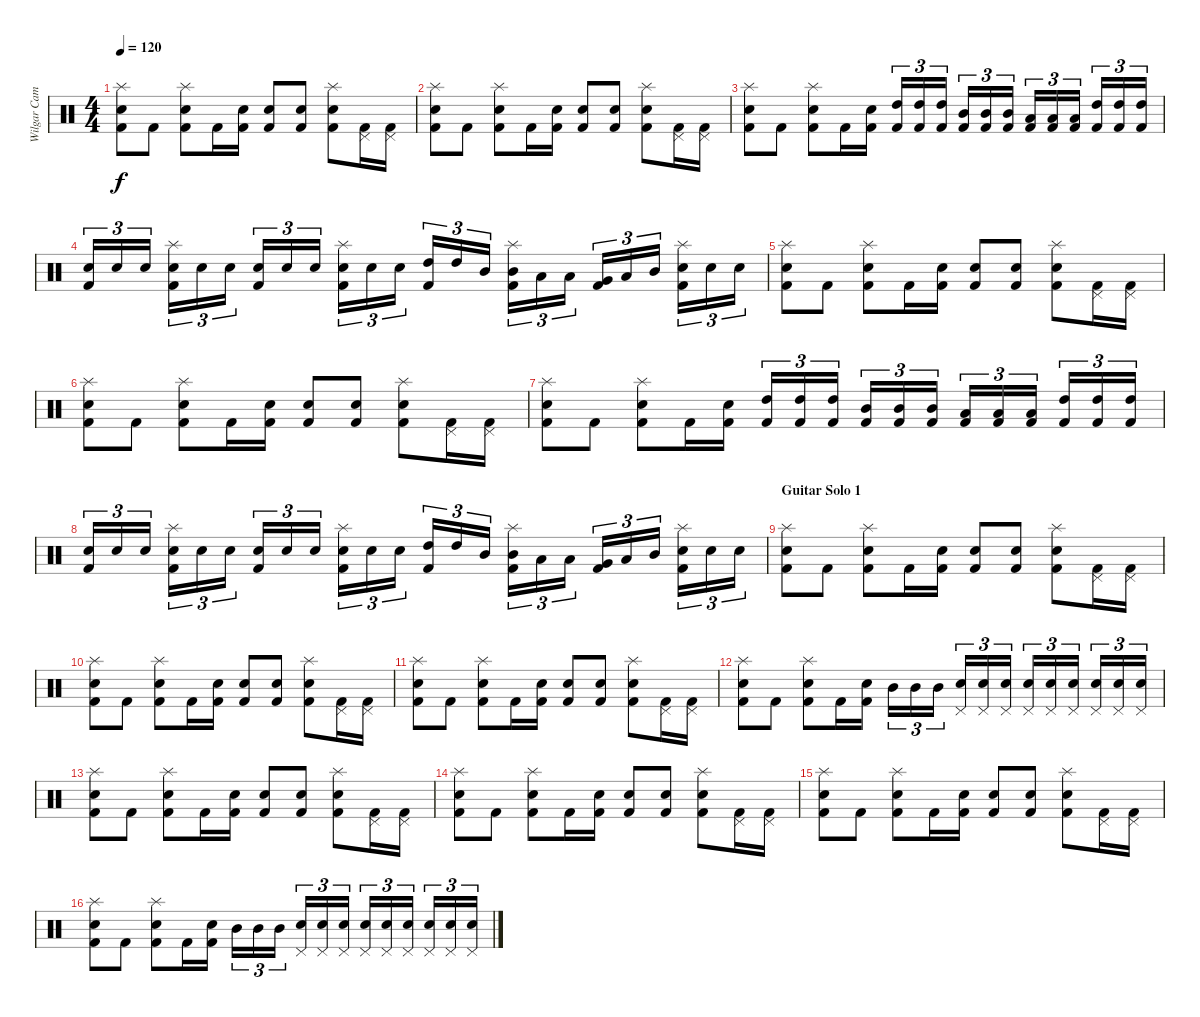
\track ("Wilgar Campbell" "Wilgar Cam") {instrument percussion}
\staff {score}
\articulation defaults
\ts (4 4)
\tempo 120
\clef neutral
\ks c
("Splash (hit)" "Snare (hit) 2" "Kick (hit) 2").8{dy f} "Kick (hit) 2".8 ("Splash (hit)" "Electric Snare (hit)" "Kick (hit) 2").8 "Kick (hit) 2".16 ("Snare (hit) 2" "Kick (hit) 2").16 ("Snare (hit) 2" "Kick (hit) 2").8 ("Electric Snare (hit)" "Kick (hit) 2").8 ("Splash (hit)" "Electric Snare (hit)" "Kick (hit) 2").8 ("Pedal Hi-Hat (hit)" "Kick (hit) 2").16 ("Pedal Hi-Hat (hit)" "Kick (hit) 2").16 |
("Splash (hit)" "Snare (hit) 2" "Kick (hit) 2").8 "Kick (hit) 2".8 ("Splash (hit)" "Electric Snare (hit)" "Kick (hit) 2").8 "Kick (hit) 2".16 ("Snare (hit) 2" "Kick (hit) 2").16 ("Snare (hit) 2" "Kick (hit) 2").8 ("Electric Snare (hit)" "Kick (hit) 2").8 ("Splash (hit)" "Electric Snare (hit)" "Kick (hit) 2").8 ("Pedal Hi-Hat (hit)" "Kick (hit) 2").16 ("Pedal Hi-Hat (hit)" "Kick (hit) 2").16 |
("Splash (hit)" "Snare (hit) 2" "Kick (hit) 2").8 "Kick (hit) 2".8 ("Splash (hit)" "Electric Snare (hit)" "Kick (hit) 2").8 "Kick (hit) 2".16 ("Snare (hit) 2" "Kick (hit) 2").16 ("High Tom (hit)" "Kick (hit) 2").16{tu (3 2)} ("High Tom (hit)" "Kick (hit) 2").16{tu (3 2)} ("High Tom (hit)" "Kick (hit) 2").16{tu (3 2)} ("Mid Tom (hit)" "Kick (hit) 2").16{tu (3 2)} ("Mid Tom (hit)" "Kick (hit) 2").16{tu (3 2)} ("Mid Tom (hit)" "Kick (hit) 2").16{tu (3 2)} ("Low Tom (hit)" "Kick (hit) 2").16{tu (3 2)} ("Low Tom (hit)" "Kick (hit) 2").16{tu (3 2)} ("Low Tom (hit)" "Kick (hit) 2").16{tu (3 2)} ("High Tom (hit)" "Kick (hit) 2").16{tu (3 2)} ("High Tom (hit)" "Kick (hit) 2").16{tu (3 2)} ("High Tom (hit)" "Kick (hit) 2").16{tu (3 2)} |
("Electric Snare (hit)" "Kick (hit) 2").16{tu (3 2)} "Electric Snare (hit)".16{tu (3 2)} "Electric Snare (hit)".16{tu (3 2)} ("Splash (hit)" "Electric Snare (hit)" "Kick (hit) 2").16{tu (3 2)} "Electric Snare (hit)".16{tu (3 2)} "Electric Snare (hit)".16{tu (3 2)} ("Snare (hit) 2" "Kick (hit) 2").16{tu (3 2)} "Snare (hit) 2".16{tu (3 2)} "Snare (hit) 2".16{tu (3 2)} ("Splash (hit)" "Snare (hit) 2" "Kick (hit) 2").16{tu (3 2)} "Snare (hit) 2".16{tu (3 2)} "Snare (hit) 2".16{tu (3 2)} ("High Tom (hit)" "Kick (hit) 2").16{tu (3 2)} "High Tom (hit)".16{tu (3 2)} "Mid Tom (hit)".16{tu (3 2)} ("Splash (hit)" "Mid Tom (hit)" "Kick (hit) 2").16{tu (3 2)} "Low Tom (hit)".16{tu (3 2)} "Low Tom (hit)".16{tu (3 2)} ("Very Low Tom (hit)" "Kick (hit) 2").16{tu (3 2)} "Low Tom (hit)".16{tu (3 2)} "Mid Tom (hit)".16{tu (3 2)} ("Splash (hit)" "Electric Snare (hit)" "Kick (hit) 2").16{tu (3 2)} "Electric Snare (hit)".16{tu (3 2)} "Electric Snare (hit)".16{tu (3 2)} |
("Splash (hit)" "Snare (hit) 2" "Kick (hit) 2").8 "Kick (hit) 2".8 ("Splash (hit)" "Electric Snare (hit)" "Kick (hit) 2").8 "Kick (hit) 2".16 ("Snare (hit) 2" "Kick (hit) 2").16 ("Snare (hit) 2" "Kick (hit) 2").8 ("Electric Snare (hit)" "Kick (hit) 2").8 ("Splash (hit)" "Electric Snare (hit)" "Kick (hit) 2").8 ("Pedal Hi-Hat (hit)" "Kick (hit) 2").16 ("Pedal Hi-Hat (hit)" "Kick (hit) 2").16 |
("Splash (hit)" "Snare (hit) 2" "Kick (hit) 2").8 "Kick (hit) 2".8 ("Splash (hit)" "Electric Snare (hit)" "Kick (hit) 2").8 "Kick (hit) 2".16 ("Snare (hit) 2" "Kick (hit) 2").16 ("Snare (hit) 2" "Kick (hit) 2").8 ("Electric Snare (hit)" "Kick (hit) 2").8 ("Splash (hit)" "Electric Snare (hit)" "Kick (hit) 2").8 ("Pedal Hi-Hat (hit)" "Kick (hit) 2").16 ("Pedal Hi-Hat (hit)" "Kick (hit) 2").16 |
("Splash (hit)" "Snare (hit) 2" "Kick (hit) 2").8 "Kick (hit) 2".8 ("Splash (hit)" "Electric Snare (hit)" "Kick (hit) 2").8 "Kick (hit) 2".16 ("Snare (hit) 2" "Kick (hit) 2").16 ("High Tom (hit)" "Kick (hit) 2").16{tu (3 2)} ("High Tom (hit)" "Kick (hit) 2").16{tu (3 2)} ("High Tom (hit)" "Kick (hit) 2").16{tu (3 2)} ("Mid Tom (hit)" "Kick (hit) 2").16{tu (3 2)} ("Mid Tom (hit)" "Kick (hit) 2").16{tu (3 2)} ("Mid Tom (hit)" "Kick (hit) 2").16{tu (3 2)} ("Low Tom (hit)" "Kick (hit) 2").16{tu (3 2)} ("Low Tom (hit)" "Kick (hit) 2").16{tu (3 2)} ("Low Tom (hit)" "Kick (hit) 2").16{tu (3 2)} ("High Tom (hit)" "Kick (hit) 2").16{tu (3 2)} ("High Tom (hit)" "Kick (hit) 2").16{tu (3 2)} ("High Tom (hit)" "Kick (hit) 2").16{tu (3 2)} |
("Electric Snare (hit)" "Kick (hit) 2").16{tu (3 2)} "Electric Snare (hit)".16{tu (3 2)} "Electric Snare (hit)".16{tu (3 2)} ("Splash (hit)" "Electric Snare (hit)" "Kick (hit) 2").16{tu (3 2)} "Electric Snare (hit)".16{tu (3 2)} "Electric Snare (hit)".16{tu (3 2)} ("Snare (hit) 2" "Kick (hit) 2").16{tu (3 2)} "Snare (hit) 2".16{tu (3 2)} "Snare (hit) 2".16{tu (3 2)} ("Splash (hit)" "Snare (hit) 2" "Kick (hit) 2").16{tu (3 2)} "Snare (hit) 2".16{tu (3 2)} "Snare (hit) 2".16{tu (3 2)} ("High Tom (hit)" "Kick (hit) 2").16{tu (3 2)} "High Tom (hit)".16{tu (3 2)} "Mid Tom (hit)".16{tu (3 2)} ("Splash (hit)" "Mid Tom (hit)" "Kick (hit) 2").16{tu (3 2)} "Low Tom (hit)".16{tu (3 2)} "Low Tom (hit)".16{tu (3 2)} ("Very Low Tom (hit)" "Kick (hit) 2").16{tu (3 2)} "Low Tom (hit)".16{tu (3 2)} "Mid Tom (hit)".16{tu (3 2)} ("Splash (hit)" "Electric Snare (hit)" "Kick (hit) 2").16{tu (3 2)} "Electric Snare (hit)".16{tu (3 2)} "Electric Snare (hit)".16{tu (3 2)} |
\section ("" "Guitar Solo 1")
("Splash (hit)" "Snare (hit) 2" "Kick (hit) 2").8 "Kick (hit) 2".8 ("Splash (hit)" "Electric Snare (hit)" "Kick (hit) 2").8 "Kick (hit) 2".16 ("Snare (hit) 2" "Kick (hit) 2").16 ("Snare (hit) 2" "Kick (hit) 2").8 ("Electric Snare (hit)" "Kick (hit) 2").8 ("Splash (hit)" "Electric Snare (hit)" "Kick (hit) 2").8 ("Pedal Hi-Hat (hit)" "Kick (hit) 2").16 ("Pedal Hi-Hat (hit)" "Kick (hit) 2").16 |
("Splash (hit)" "Snare (hit) 2" "Kick (hit) 2").8 "Kick (hit) 2".8 ("Splash (hit)" "Electric Snare (hit)" "Kick (hit) 2").8 "Kick (hit) 2".16 ("Snare (hit) 2" "Kick (hit) 2").16 ("Snare (hit) 2" "Kick (hit) 2").8 ("Electric Snare (hit)" "Kick (hit) 2").8 ("Splash (hit)" "Electric Snare (hit)" "Kick (hit) 2").8 ("Pedal Hi-Hat (hit)" "Kick (hit) 2").16 ("Pedal Hi-Hat (hit)" "Kick (hit) 2").16 |
("Splash (hit)" "Snare (hit) 2" "Kick (hit) 2").8 "Kick (hit) 2".8 ("Splash (hit)" "Electric Snare (hit)" "Kick (hit) 2").8 "Kick (hit) 2".16 ("Snare (hit) 2" "Kick (hit) 2").16 ("Snare (hit) 2" "Kick (hit) 2").8 ("Electric Snare (hit)" "Kick (hit) 2").8 ("Splash (hit)" "Electric Snare (hit)" "Kick (hit) 2").8 ("Pedal Hi-Hat (hit)" "Kick (hit) 2").16 ("Pedal Hi-Hat (hit)" "Kick (hit) 2").16 |
("Splash (hit)" "Snare (hit) 2" "Kick (hit) 2").8 "Kick (hit) 2".8 ("Splash (hit)" "Electric Snare (hit)" "Kick (hit) 2").8 "Kick (hit) 2".16 ("Snare (hit) 2" "Kick (hit) 2").16 "Mid Tom (hit)".16{tu (3 2)} "Mid Tom (hit)".16{tu (3 2)} "Mid Tom (hit)".16{tu (3 2)} ("Pedal Hi-Hat (hit)" "Snare (hit) 2").16{tu (3 2)} ("Pedal Hi-Hat (hit)" "Snare (hit) 2").16{tu (3 2)} ("Pedal Hi-Hat (hit)" "Snare (hit) 2").16{tu (3 2)} ("Pedal Hi-Hat (hit)" "Snare (hit) 2").16{tu (3 2)} ("Pedal Hi-Hat (hit)" "Snare (hit) 2").16{tu (3 2)} ("Pedal Hi-Hat (hit)" "Snare (hit) 2").16{tu (3 2)} ("Pedal Hi-Hat (hit)" "Snare (hit) 2").16{tu (3 2)} ("Pedal Hi-Hat (hit)" "Snare (hit) 2").16{tu (3 2)} ("Pedal Hi-Hat (hit)" "Snare (hit) 2").16{tu (3 2)} |
("Splash (hit)" "Snare (hit) 2" "Kick (hit) 2").8 "Kick (hit) 2".8 ("Splash (hit)" "Electric Snare (hit)" "Kick (hit) 2").8 "Kick (hit) 2".16 ("Snare (hit) 2" "Kick (hit) 2").16 ("Snare (hit) 2" "Kick (hit) 2").8 ("Electric Snare (hit)" "Kick (hit) 2").8 ("Splash (hit)" "Electric Snare (hit)" "Kick (hit) 2").8 ("Pedal Hi-Hat (hit)" "Kick (hit) 2").16 ("Pedal Hi-Hat (hit)" "Kick (hit) 2").16 |
("Splash (hit)" "Snare (hit) 2" "Kick (hit) 2").8 "Kick (hit) 2".8 ("Splash (hit)" "Electric Snare (hit)" "Kick (hit) 2").8 "Kick (hit) 2".16 ("Snare (hit) 2" "Kick (hit) 2").16 ("Snare (hit) 2" "Kick (hit) 2").8 ("Electric Snare (hit)" "Kick (hit) 2").8 ("Splash (hit)" "Electric Snare (hit)" "Kick (hit) 2").8 ("Pedal Hi-Hat (hit)" "Kick (hit) 2").16 ("Pedal Hi-Hat (hit)" "Kick (hit) 2").16 |
("Splash (hit)" "Snare (hit) 2" "Kick (hit) 2").8 "Kick (hit) 2".8 ("Splash (hit)" "Electric Snare (hit)" "Kick (hit) 2").8 "Kick (hit) 2".16 ("Snare (hit) 2" "Kick (hit) 2").16 ("Snare (hit) 2" "Kick (hit) 2").8 ("Electric Snare (hit)" "Kick (hit) 2").8 ("Splash (hit)" "Electric Snare (hit)" "Kick (hit) 2").8 ("Pedal Hi-Hat (hit)" "Kick (hit) 2").16 ("Pedal Hi-Hat (hit)" "Kick (hit) 2").16 |
("Splash (hit)" "Snare (hit) 2" "Kick (hit) 2").8 "Kick (hit) 2".8 ("Splash (hit)" "Electric Snare (hit)" "Kick (hit) 2").8 "Kick (hit) 2".16 ("Snare (hit) 2" "Kick (hit) 2").16 "Mid Tom (hit)".16{tu (3 2)} "Mid Tom (hit)".16{tu (3 2)} "Mid Tom (hit)".16{tu (3 2)} ("Pedal Hi-Hat (hit)" "Snare (hit) 2").16{tu (3 2)} ("Pedal Hi-Hat (hit)" "Snare (hit) 2").16{tu (3 2)} ("Pedal Hi-Hat (hit)" "Snare (hit) 2").16{tu (3 2)} ("Pedal Hi-Hat (hit)" "Snare (hit) 2").16{tu (3 2)} ("Pedal Hi-Hat (hit)" "Snare (hit) 2").16{tu (3 2)} ("Pedal Hi-Hat (hit)" "Snare (hit) 2").16{tu (3 2)} ("Pedal Hi-Hat (hit)" "Snare (hit) 2").16{tu (3 2)} ("Pedal Hi-Hat (hit)" "Snare (hit) 2").16{tu (3 2)} ("Pedal Hi-Hat (hit)" "Snare (hit) 2").16{tu (3 2)}
